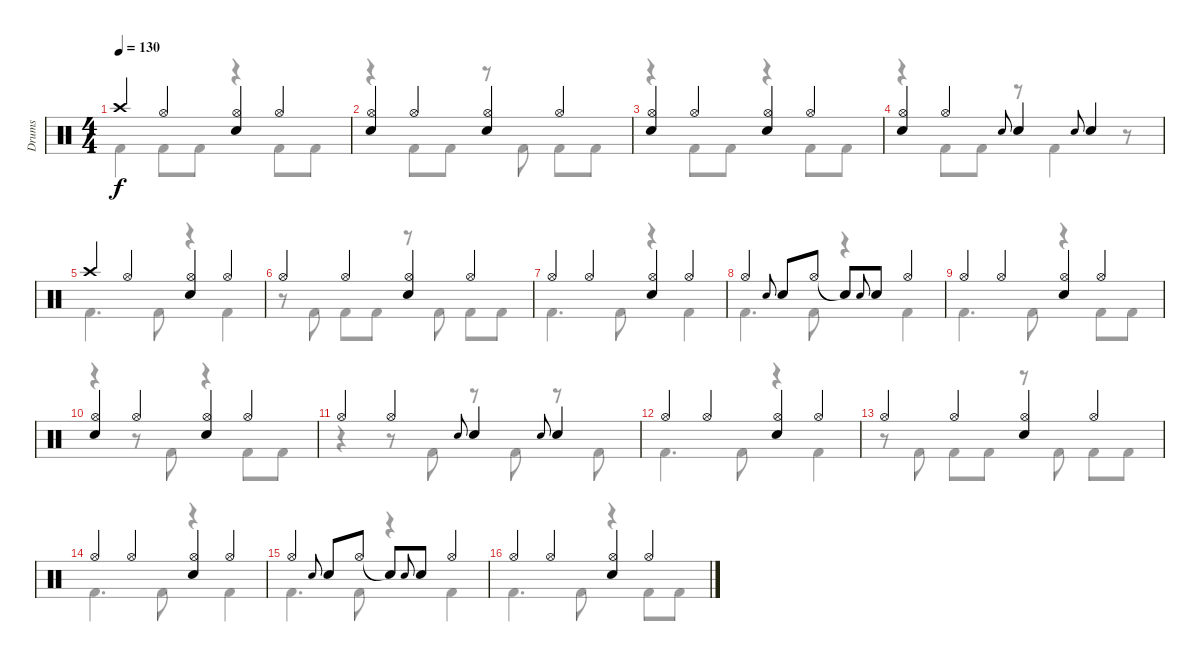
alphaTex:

\track ("Drums" "Drums") {instrument percussion}
\staff {score}
\articulation defaults
\voice
\ts (4 4)
\tempo 130
\clef neutral
\ks c "Crash high (hit)".4{dy f} "Hi-Hat (open)".4
("Hi-Hat (open)" "Electric Snare (hit)").4 "Hi-Hat (open)".4 |
("Hi-Hat (open)" "Electric Snare (hit)").4 "Hi-Hat (open)".4 ("Hi-Hat (open)" "Electric Snare (hit)").4 "Hi-Hat (open)".4 |
("Hi-Hat (open)" "Electric Snare (hit)").4 "Hi-Hat (open)".4 ("Hi-Hat (open)" "Electric Snare (hit)").4 "Hi-Hat (open)".4 |
("Hi-Hat (open)" "Electric Snare (hit)").4 "Hi-Hat (open)".4 "Electric Snare (hit)".8{gr onbeat} "Electric Snare (hit)".4 "Electric Snare (hit)".8{gr onbeat} "Electric Snare (hit)".4 |
"Crash high (hit)".4 "Hi-Hat (open)".4 ("Hi-Hat (open)" "Electric Snare (hit)").4 "Hi-Hat (open)".4 |
"Hi-Hat (open)".4 "Hi-Hat (open)".4 ("Hi-Hat (open)" "Electric Snare (hit)").4 "Hi-Hat (open)".4 |
"Hi-Hat (open)".4 "Hi-Hat (open)".4 ("Hi-Hat (open)" "Electric Snare (hit)").4 "Hi-Hat (open)".4 |
"Hi-Hat (open)".4 "Electric Snare (hit)".8{gr onbeat} "Electric Snare (hit)".8 "Hi-Hat (open)".8 "Snare (hit)"{t}.8 "Electric Snare (hit)".8{gr onbeat} "Electric Snare (hit)".8 "Hi-Hat (open)".4 |
"Hi-Hat (open)".4 "Hi-Hat (open)".4 ("Hi-Hat (open)" "Electric Snare (hit)").4 "Hi-Hat (open)".4 |
("Hi-Hat (open)" "Electric Snare (hit)").4 "Hi-Hat (open)".4 ("Hi-Hat (open)" "Electric Snare (hit)").4 "Hi-Hat (open)".4 |
"Hi-Hat (open)".4 "Hi-Hat (open)".4 "Electric Snare (hit)".8{gr onbeat} "Electric Snare (hit)".4 "Electric Snare (hit)".8{gr onbeat} "Electric Snare (hit)".4 |
"Hi-Hat (open)".4 "Hi-Hat (open)".4 ("Hi-Hat (open)" "Electric Snare (hit)").4 "Hi-Hat (open)".4 |
"Hi-Hat (open)".4 "Hi-Hat (open)".4 ("Hi-Hat (open)" "Electric Snare (hit)").4 "Hi-Hat (open)".4 |
"Hi-Hat (open)".4 "Hi-Hat (open)".4 ("Hi-Hat (open)" "Electric Snare (hit)").4 "Hi-Hat (open)".4 |
"Hi-Hat (open)".4 "Electric Snare (hit)".8{gr onbeat} "Electric Snare (hit)".8 "Hi-Hat (open)".8 "Snare (hit)"{t}.8 "Electric Snare (hit)".8{gr onbeat} "Electric Snare (hit)".8 "Hi-Hat (open)".4 |
"Hi-Hat (open)".4 "Hi-Hat (open)".4 ("Hi-Hat (open)" "Electric Snare (hit)").4 "Hi-Hat (open)".4
\voice
\clef neutral
\ottava regular
\simile none
\ks c "Kick (hit) 2".4{dy f} "Kick (hit) 2".8 "Kick (hit) 2".8
r.4 "Kick (hit) 2".8 "Kick (hit) 2".8 |
r.4 "Kick (hit) 2".8 "Kick (hit) 2".8 r.8 "Kick (hit) 2".8 "Kick (hit) 2".8 "Kick (hit) 2".8 |
r.4 "Kick (hit) 2".8 "Kick (hit) 2".8 r.4 "Kick (hit) 2".8 "Kick (hit) 2".8 |
r.4 "Kick (hit) 2".8 "Kick (hit) 2".8 r.8 "Kick (hit) 2".4 r.8 |
"Kick (hit) 2".4{d} "Kick (hit) 2".8 r.4 "Kick (hit) 2".4 |
r.8 "Kick (hit) 2".8 "Kick (hit) 2".8 "Kick (hit) 2".8 r.8 "Kick (hit) 2".8 "Kick (hit) 2".8 "Kick (hit) 2".8 |
"Kick (hit) 2".4{d} "Kick (hit) 2".8 r.4 "Kick (hit) 2".4 |
"Kick (hit) 2".4{d} "Kick (hit) 2".8 r.4 "Kick (hit) 2".4 |
"Kick (hit) 2".4{d} "Kick (hit) 2".8 r.4 "Kick (hit) 2".8{beam merge} "Kick (hit) 2".8 |
r.4 r.8 "Kick (hit) 2".8 r.4 "Kick (hit) 2".8 "Kick (hit) 2".8 |
r.4 r.8 "Kick (hit) 2".8 r.8 "Kick (hit) 2".8 r.8 "Kick (hit) 2".8 |
"Kick (hit) 2".4{d} "Kick (hit) 2".8 r.4 "Kick (hit) 2".4 |
r.8 "Kick (hit) 2".8 "Kick (hit) 2".8 "Kick (hit) 2".8 r.8 "Kick (hit) 2".8 "Kick (hit) 2".8 "Kick (hit) 2".8 |
"Kick (hit) 2".4{d} "Kick (hit) 2".8 r.4 "Kick (hit) 2".4 |
"Kick (hit) 2".4{d} "Kick (hit) 2".8 r.4 "Kick (hit) 2".4 |
"Kick (hit) 2".4{d} "Kick (hit) 2".8 r.4 "Kick (hit) 2".8 "Kick (hit) 2".8
